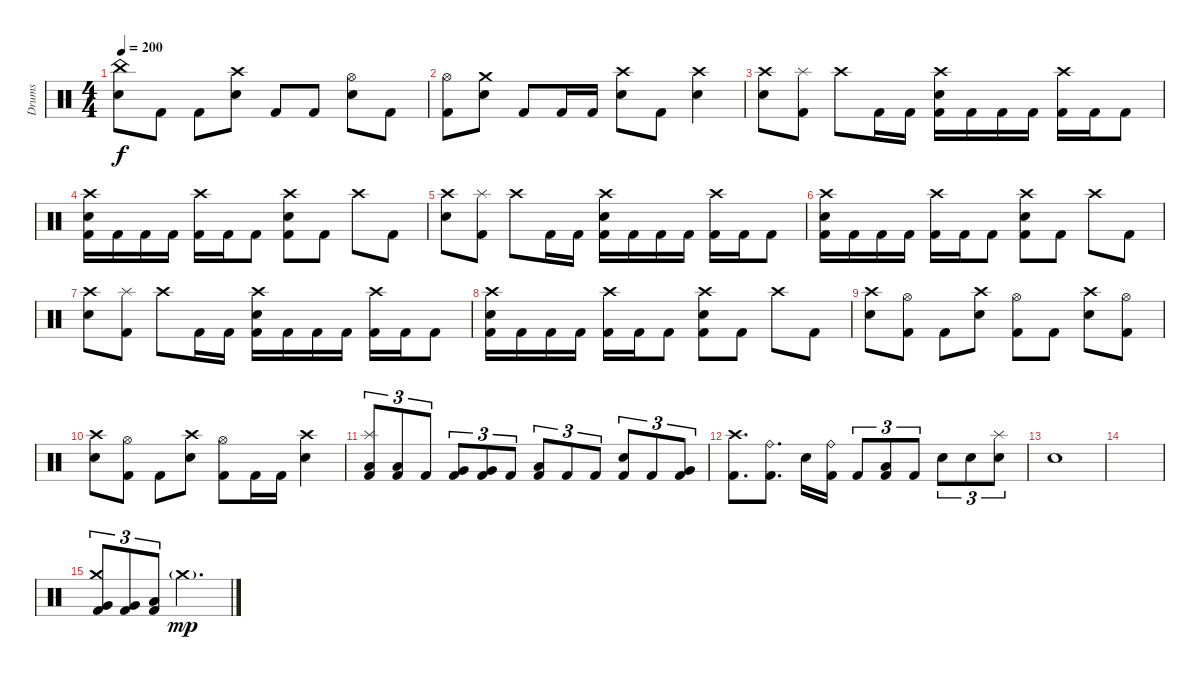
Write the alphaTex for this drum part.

\track ("Drums" "Drums") {instrument percussion}
\staff {score}
\articulation defaults
\ts (4 4)
\tempo 200
\clef neutral
\ks c
("China (hit)" "Electric Snare (hit)").8{dy f} "Kick (hit) 2".8 "Kick (hit) 2".8 ("Crash high (hit)" "Electric Snare (hit)").8 "Kick (hit) 2".8 "Kick (hit) 2".8 ("Hi-Hat (open)" "Electric Snare (hit)").8 "Kick (hit) 2".8 |
("Hi-Hat (open)" "Kick (hit) 2").8 ("Crash medium (hit)" "Electric Snare (hit)").8 "Kick (hit) 2".8 "Kick (hit) 2".16 "Kick (hit) 2".16 ("Crash high (hit)" "Electric Snare (hit)").8 "Kick (hit) 2".8 ("Crash high (hit)" "Electric Snare (hit)").4 |
("Crash high (hit)" "Electric Snare (hit)").8 ("Splash (hit)" "Kick (hit) 2").8 "Crash high (hit)".8 "Kick (hit) 2".16 "Kick (hit) 2".16 ("Crash high (hit)" "Electric Snare (hit)" "Kick (hit) 2").16 "Kick (hit) 2".16 "Kick (hit) 2".16 "Kick (hit) 2".16 ("Crash high (hit)" "Kick (hit) 2").16 "Kick (hit) 2".16 "Kick (hit) 2".8 |
("Crash high (hit)" "Electric Snare (hit)" "Kick (hit) 2").16 "Kick (hit) 2".16 "Kick (hit) 2".16 "Kick (hit) 2".16 ("Crash high (hit)" "Kick (hit) 2").16 "Kick (hit) 2".16 "Kick (hit) 2".8 ("Crash high (hit)" "Electric Snare (hit)" "Kick (hit) 2").8 "Kick (hit) 2".8 "Crash high (hit)".8 "Kick (hit) 2".8 |
("Crash high (hit)" "Electric Snare (hit)").8 ("Splash (hit)" "Kick (hit) 2").8 "Crash high (hit)".8 "Kick (hit) 2".16 "Kick (hit) 2".16 ("Crash high (hit)" "Electric Snare (hit)" "Kick (hit) 2").16 "Kick (hit) 2".16 "Kick (hit) 2".16 "Kick (hit) 2".16 ("Crash high (hit)" "Kick (hit) 2").16 "Kick (hit) 2".16 "Kick (hit) 2".8 |
("Crash high (hit)" "Electric Snare (hit)" "Kick (hit) 2").16 "Kick (hit) 2".16 "Kick (hit) 2".16 "Kick (hit) 2".16 ("Crash high (hit)" "Kick (hit) 2").16 "Kick (hit) 2".16 "Kick (hit) 2".8 ("Crash high (hit)" "Electric Snare (hit)" "Kick (hit) 2").8 "Kick (hit) 2".8 "Crash high (hit)".8 "Kick (hit) 2".8 |
("Crash high (hit)" "Electric Snare (hit)").8 ("Splash (hit)" "Kick (hit) 2").8 "Crash high (hit)".8 "Kick (hit) 2".16 "Kick (hit) 2".16 ("Crash high (hit)" "Electric Snare (hit)" "Kick (hit) 2").16 "Kick (hit) 2".16 "Kick (hit) 2".16 "Kick (hit) 2".16 ("Crash high (hit)" "Kick (hit) 2").16 "Kick (hit) 2".16 "Kick (hit) 2".8 |
("Crash high (hit)" "Electric Snare (hit)" "Kick (hit) 2").16 "Kick (hit) 2".16 "Kick (hit) 2".16 "Kick (hit) 2".16 ("Crash high (hit)" "Kick (hit) 2").16 "Kick (hit) 2".16 "Kick (hit) 2".8 ("Crash high (hit)" "Electric Snare (hit)" "Kick (hit) 2").8 "Kick (hit) 2".8 "Crash high (hit)".8 "Kick (hit) 2".8 |
("Crash high (hit)" "Electric Snare (hit)").8 ("Hi-Hat (open)" "Kick (hit) 2").8 "Kick (hit) 2".8 ("Crash high (hit)" "Electric Snare (hit)").8 ("Hi-Hat (open)" "Kick (hit) 2").8 "Kick (hit) 2".8 ("Crash high (hit)" "Electric Snare (hit)").8 ("Hi-Hat (open)" "Kick (hit) 2").8 |
("Crash high (hit)" "Electric Snare (hit)").8 ("Hi-Hat (open)" "Kick (hit) 2").8 "Kick (hit) 2".8 ("Crash high (hit)" "Electric Snare (hit)").8 ("Hi-Hat (open)" "Kick (hit) 2").8 "Kick (hit) 2".16 "Kick (hit) 2".16 ("Crash high (hit)" "Electric Snare (hit)").4 |
("Splash (hit)" "Low Tom (hit)" "Kick (hit) 2").8{tu (3 2)} ("Low Tom (hit)" "Kick (hit) 2").8{tu (3 2)} "Kick (hit) 2".8{tu (3 2)} ("Very Low Tom (hit)" "Kick (hit) 2").8{tu (3 2)} ("Very Low Tom (hit)" "Kick (hit) 2").8{tu (3 2)} "Kick (hit) 2".8{tu (3 2)} ("Low Floor Tom (hit)" "Kick (hit) 2").8{tu (3 2)} "Kick (hit) 2".8{tu (3 2)} "Kick (hit) 2".8{tu (3 2)} ("Electric Snare (hit)" "Kick (hit) 2").8{tu (3 2)} "Kick (hit) 2".8{tu (3 2)} ("Very Low Tom (hit)" "Kick (hit) 2").8{tu (3 2)} |
("Crash high (hit)" "Kick (hit) 2").8{d} ("Ride (bell)" "Kick (hit) 2").8{d} "Electric Snare (hit)".16 ("Ride (bell)" "Kick (hit) 2").16 "Kick (hit) 2".8{tu (3 2)} ("Low Floor Tom (hit)" "Kick (hit) 2").8{tu (3 2)} "Kick (hit) 2".8{tu (3 2)} "Electric Snare (hit)".8{tu (3 2)} "Electric Snare (hit)".8{tu (3 2)} ("Splash (hit)" "Electric Snare (hit)").8{tu (3 2)} |
"Electric Snare (hit)".1 |
|
("Crash medium (hit)" "Very Low Tom (hit)" "Kick (hit) 2").8{tu (3 2)} ("Very Low Tom (hit)" "Kick (hit) 2").8{tu (3 2)} ("Low Floor Tom (hit)" "Kick (hit) 2").8{tu (3 2)} "Crash medium (hit)"{g}.2{d dy mp}
